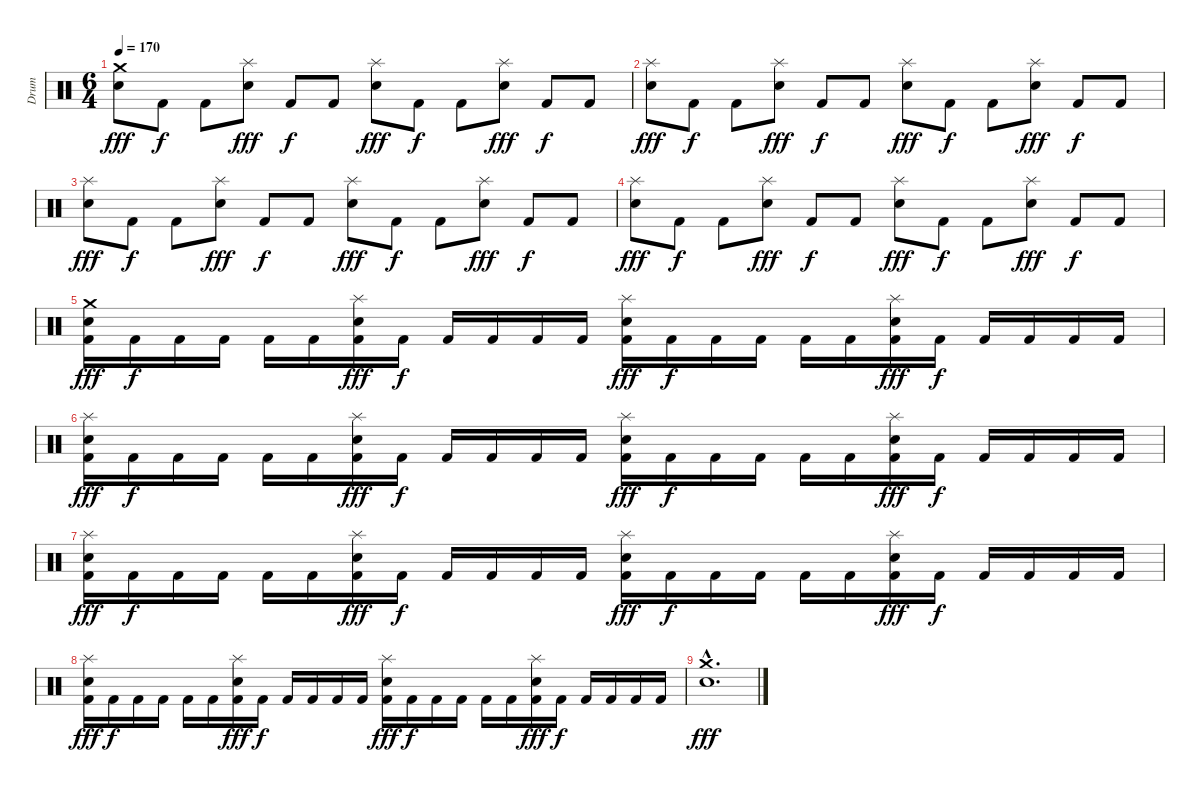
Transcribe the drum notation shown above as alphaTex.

\track ("Drum" "Drum") {instrument percussion}
\staff {score}
\articulation defaults
\ts (6 4)
\tempo 170
\clef neutral
\ks c
("Crash medium (hit)" "Electric Snare (hit)").8{dy fff} "Kick (hit) 2".8{dy f} "Kick (hit) 2".8 ("Splash (hit)" "Electric Snare (hit)").8{dy fff} "Kick (hit) 2".8{dy f} "Kick (hit) 2".8 ("Splash (hit)" "Electric Snare (hit)").8{dy fff} "Kick (hit) 2".8{dy f} "Kick (hit) 2".8 ("Splash (hit)" "Electric Snare (hit)").8{dy fff} "Kick (hit) 2".8{dy f} "Kick (hit) 2".8 |
("Splash (hit)" "Electric Snare (hit)").8{dy fff} "Kick (hit) 2".8{dy f} "Kick (hit) 2".8 ("Splash (hit)" "Electric Snare (hit)").8{dy fff} "Kick (hit) 2".8{dy f} "Kick (hit) 2".8 ("Splash (hit)" "Electric Snare (hit)").8{dy fff} "Kick (hit) 2".8{dy f} "Kick (hit) 2".8 ("Splash (hit)" "Electric Snare (hit)").8{dy fff} "Kick (hit) 2".8{dy f} "Kick (hit) 2".8 |
("Splash (hit)" "Electric Snare (hit)").8{dy fff} "Kick (hit) 2".8{dy f} "Kick (hit) 2".8 ("Splash (hit)" "Electric Snare (hit)").8{dy fff} "Kick (hit) 2".8{dy f} "Kick (hit) 2".8 ("Splash (hit)" "Electric Snare (hit)").8{dy fff} "Kick (hit) 2".8{dy f} "Kick (hit) 2".8 ("Splash (hit)" "Electric Snare (hit)").8{dy fff} "Kick (hit) 2".8{dy f} "Kick (hit) 2".8 |
("Splash (hit)" "Electric Snare (hit)").8{dy fff} "Kick (hit) 2".8{dy f} "Kick (hit) 2".8 ("Splash (hit)" "Electric Snare (hit)").8{dy fff} "Kick (hit) 2".8{dy f} "Kick (hit) 2".8 ("Splash (hit)" "Electric Snare (hit)").8{dy fff} "Kick (hit) 2".8{dy f} "Kick (hit) 2".8 ("Splash (hit)" "Electric Snare (hit)").8{dy fff} "Kick (hit) 2".8{dy f} "Kick (hit) 2".8 |
("Crash medium (hit)" "Electric Snare (hit)" "Kick (hit) 2").16{dy fff} "Kick (hit) 2".16{dy f} "Kick (hit) 2".16 "Kick (hit) 2".16 "Kick (hit) 2".16 "Kick (hit) 2".16 ("Splash (hit)" "Electric Snare (hit)" "Kick (hit) 2").16{dy fff} "Kick (hit) 2".16{dy f} "Kick (hit) 2".16 "Kick (hit) 2".16 "Kick (hit) 2".16 "Kick (hit) 2".16 ("Splash (hit)" "Electric Snare (hit)" "Kick (hit) 2").16{dy fff} "Kick (hit) 2".16{dy f} "Kick (hit) 2".16 "Kick (hit) 2".16 "Kick (hit) 2".16 "Kick (hit) 2".16 ("Splash (hit)" "Electric Snare (hit)" "Kick (hit) 2").16{dy fff} "Kick (hit) 2".16{dy f} "Kick (hit) 2".16 "Kick (hit) 2".16 "Kick (hit) 2".16 "Kick (hit) 2".16 |
("Splash (hit)" "Electric Snare (hit)" "Kick (hit) 2").16{dy fff} "Kick (hit) 2".16{dy f} "Kick (hit) 2".16 "Kick (hit) 2".16 "Kick (hit) 2".16 "Kick (hit) 2".16 ("Splash (hit)" "Electric Snare (hit)" "Kick (hit) 2").16{dy fff} "Kick (hit) 2".16{dy f} "Kick (hit) 2".16 "Kick (hit) 2".16 "Kick (hit) 2".16 "Kick (hit) 2".16 ("Splash (hit)" "Electric Snare (hit)" "Kick (hit) 2").16{dy fff} "Kick (hit) 2".16{dy f} "Kick (hit) 2".16 "Kick (hit) 2".16 "Kick (hit) 2".16 "Kick (hit) 2".16 ("Splash (hit)" "Electric Snare (hit)" "Kick (hit) 2").16{dy fff} "Kick (hit) 2".16{dy f} "Kick (hit) 2".16 "Kick (hit) 2".16 "Kick (hit) 2".16 "Kick (hit) 2".16 |
("Splash (hit)" "Electric Snare (hit)" "Kick (hit) 2").16{dy fff} "Kick (hit) 2".16{dy f} "Kick (hit) 2".16 "Kick (hit) 2".16 "Kick (hit) 2".16 "Kick (hit) 2".16 ("Splash (hit)" "Electric Snare (hit)" "Kick (hit) 2").16{dy fff} "Kick (hit) 2".16{dy f} "Kick (hit) 2".16 "Kick (hit) 2".16 "Kick (hit) 2".16 "Kick (hit) 2".16 ("Splash (hit)" "Electric Snare (hit)" "Kick (hit) 2").16{dy fff} "Kick (hit) 2".16{dy f} "Kick (hit) 2".16 "Kick (hit) 2".16 "Kick (hit) 2".16 "Kick (hit) 2".16 ("Splash (hit)" "Electric Snare (hit)" "Kick (hit) 2").16{dy fff} "Kick (hit) 2".16{dy f} "Kick (hit) 2".16 "Kick (hit) 2".16 "Kick (hit) 2".16 "Kick (hit) 2".16 |
("Splash (hit)" "Electric Snare (hit)" "Kick (hit) 2").16{dy fff} "Kick (hit) 2".16{dy f} "Kick (hit) 2".16 "Kick (hit) 2".16 "Kick (hit) 2".16 "Kick (hit) 2".16 ("Splash (hit)" "Electric Snare (hit)" "Kick (hit) 2").16{dy fff} "Kick (hit) 2".16{dy f} "Kick (hit) 2".16 "Kick (hit) 2".16 "Kick (hit) 2".16 "Kick (hit) 2".16 ("Splash (hit)" "Electric Snare (hit)" "Kick (hit) 2").16{dy fff} "Kick (hit) 2".16{dy f} "Kick (hit) 2".16 "Kick (hit) 2".16 "Kick (hit) 2".16 "Kick (hit) 2".16 ("Splash (hit)" "Electric Snare (hit)" "Kick (hit) 2").16{dy fff} "Kick (hit) 2".16{dy f} "Kick (hit) 2".16 "Kick (hit) 2".16 "Kick (hit) 2".16 "Kick (hit) 2".16 |
("Crash medium (hit)"{hac} "Electric Snare (hit)"{hac}).1{d dy fff}
